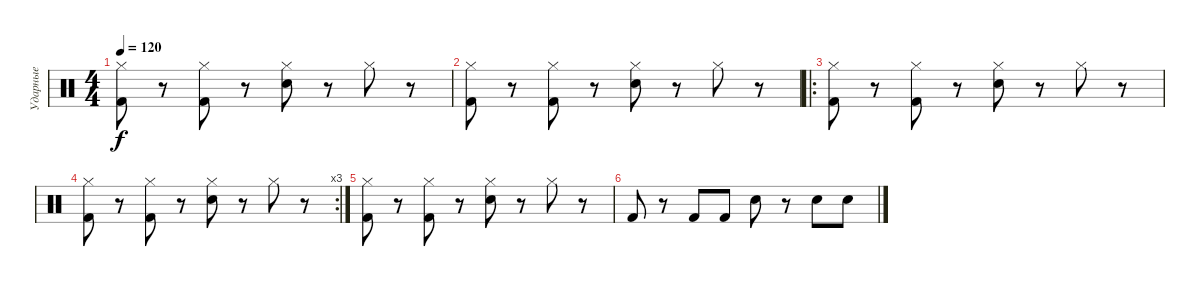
\track ("Ударные" "Ударные") {instrument percussion}
\staff {score}
\articulation defaults
\ts (4 4)
\tempo 120
\clef neutral
\ks c
("Hi-Hat (closed)" "Kick (hit) 2").8{dy f} r.8 ("Hi-Hat (closed)" "Kick (hit) 2").8 r.8 ("Hi-Hat (closed)" "Electric Snare (hit)").8 r.8 "Hi-Hat (closed)".8 r.8 |
("Hi-Hat (closed)" "Kick (hit) 2").8 r.8 ("Hi-Hat (closed)" "Kick (hit) 2").8 r.8 ("Hi-Hat (closed)" "Electric Snare (hit)").8 r.8 "Hi-Hat (closed)".8 r.8 |
\ro
("Hi-Hat (closed)" "Kick (hit) 2").8 r.8 ("Hi-Hat (closed)" "Kick (hit) 2").8 r.8 ("Hi-Hat (closed)" "Electric Snare (hit)").8 r.8 "Hi-Hat (closed)".8 r.8 |
\rc 3
("Hi-Hat (closed)" "Kick (hit) 2").8 r.8 ("Hi-Hat (closed)" "Kick (hit) 2").8 r.8 ("Hi-Hat (closed)" "Electric Snare (hit)").8 r.8 "Hi-Hat (closed)".8 r.8 |
("Hi-Hat (closed)" "Kick (hit) 2").8 r.8 ("Hi-Hat (closed)" "Kick (hit) 2").8 r.8 ("Hi-Hat (closed)" "Electric Snare (hit)").8 r.8 "Hi-Hat (closed)".8 r.8 |
"Kick (hit) 2".8 r.8 "Kick (hit) 2".8 "Kick (hit) 2".8 "Electric Snare (hit)".8 r.8 "Electric Snare (hit)".8 "Electric Snare (hit)".8
